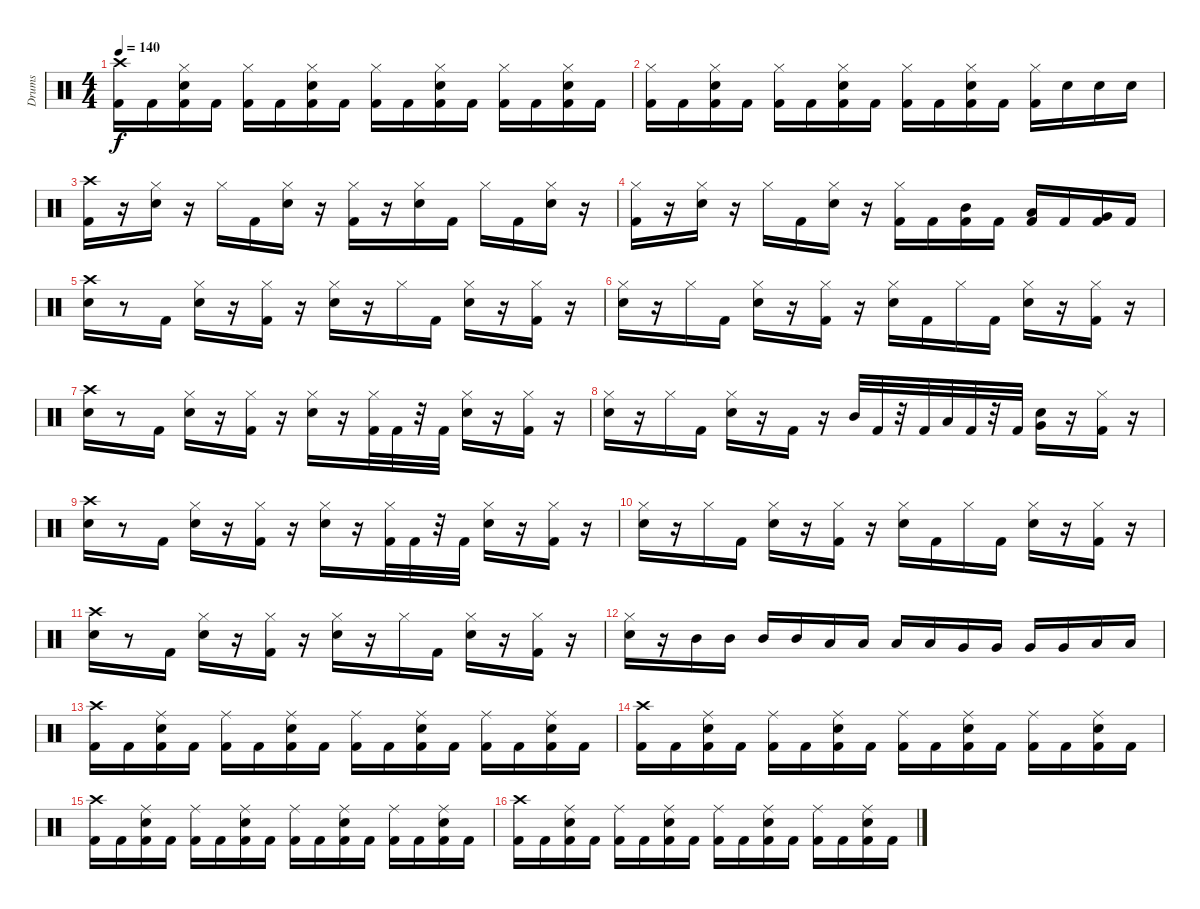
\track ("Drums" "Drums") {instrument percussion}
\staff {score}
\articulation defaults
\ts (4 4)
\tempo 140
\clef neutral
\ks c
("Kick (hit) 2" "Crash high (hit)").16{dy f} "Kick (hit) 2".16 ("Kick (hit) 2" "Snare (hit) 2" "Hi-Hat (closed)").16 "Kick (hit) 2".16 ("Kick (hit) 2" "Hi-Hat (closed)").16 "Kick (hit) 2".16 ("Kick (hit) 2" "Snare (hit) 2" "Hi-Hat (closed)").16 "Kick (hit) 2".16 ("Kick (hit) 2" "Hi-Hat (closed)").16 "Kick (hit) 2".16 ("Kick (hit) 2" "Snare (hit) 2" "Hi-Hat (closed)").16 "Kick (hit) 2".16 ("Kick (hit) 2" "Hi-Hat (closed)").16 "Kick (hit) 2".16 ("Kick (hit) 2" "Snare (hit) 2" "Hi-Hat (closed)").16 "Kick (hit) 2".16 |
("Kick (hit) 2" "Hi-Hat (closed)").16 "Kick (hit) 2".16 ("Kick (hit) 2" "Snare (hit) 2" "Hi-Hat (closed)").16 "Kick (hit) 2".16 ("Kick (hit) 2" "Hi-Hat (closed)").16 "Kick (hit) 2".16 ("Kick (hit) 2" "Snare (hit) 2" "Hi-Hat (closed)").16 "Kick (hit) 2".16 ("Kick (hit) 2" "Hi-Hat (closed)").16 "Kick (hit) 2".16 ("Kick (hit) 2" "Snare (hit) 2" "Hi-Hat (closed)").16 "Kick (hit) 2".16 ("Kick (hit) 2" "Hi-Hat (closed)").16 "Snare (hit) 2".16 "Snare (hit) 2".16 "Snare (hit) 2".16 |
("Kick (hit) 2" "Crash high (hit)").16 r.16 ("Snare (hit) 2" "Hi-Hat (closed)").16 r.16 "Hi-Hat (closed)".16 "Kick (hit) 2".16 ("Snare (hit) 2" "Hi-Hat (closed)").16 r.16 ("Kick (hit) 2" "Hi-Hat (closed)").16 r.16 ("Snare (hit) 2" "Hi-Hat (closed)").16 "Kick (hit) 2".16 "Hi-Hat (closed)".16 "Kick (hit) 2".16 ("Snare (hit) 2" "Hi-Hat (closed)").16 r.16 |
("Kick (hit) 2" "Hi-Hat (closed)").16 r.16 ("Snare (hit) 2" "Hi-Hat (closed)").16 r.16 "Hi-Hat (closed)".16 "Kick (hit) 2".16 ("Snare (hit) 2" "Hi-Hat (closed)").16 r.16 ("Kick (hit) 2" "Hi-Hat (closed)").16 "Kick (hit) 2".16 ("Kick (hit) 2" "Mid Tom (hit)").16 "Kick (hit) 2".16 ("Kick (hit) 2" "Low Tom (hit)").16 "Kick (hit) 2".16 ("Kick (hit) 2" "Very Low Tom (hit)").16 "Kick (hit) 2".16 |
("Snare (hit) 2" "Crash high (hit)").16 r.8 "Kick (hit) 2".16 ("Snare (hit) 2" "Hi-Hat (closed)").16 r.16 ("Kick (hit) 2" "Hi-Hat (closed)").16 r.16 ("Snare (hit) 2" "Hi-Hat (closed)").16 r.16 "Hi-Hat (closed)".16 "Kick (hit) 2".16 ("Snare (hit) 2" "Hi-Hat (closed)").16 r.16 ("Kick (hit) 2" "Hi-Hat (closed)").16 r.16 |
("Snare (hit) 2" "Hi-Hat (closed)").16 r.16 "Hi-Hat (closed)".16 "Kick (hit) 2".16 ("Snare (hit) 2" "Hi-Hat (closed)").16 r.16 ("Kick (hit) 2" "Hi-Hat (closed)").16 r.16 ("Snare (hit) 2" "Hi-Hat (closed)").16 "Kick (hit) 2".16 "Hi-Hat (closed)".16 "Kick (hit) 2".16 ("Snare (hit) 2" "Hi-Hat (closed)").16 r.16 ("Kick (hit) 2" "Hi-Hat (closed)").16 r.16 |
("Snare (hit) 2" "Crash high (hit)").16 r.8 "Kick (hit) 2".16 ("Snare (hit) 2" "Hi-Hat (closed)").16 r.16 ("Kick (hit) 2" "Hi-Hat (closed)").16 r.16 ("Snare (hit) 2" "Hi-Hat (closed)").16 r.16 ("Kick (hit) 2" "Hi-Hat (closed)").32 "Kick (hit) 2".32 r.32 "Kick (hit) 2".32 ("Snare (hit) 2" "Hi-Hat (closed)").16 r.16 ("Kick (hit) 2" "Hi-Hat (closed)").16 r.16 |
("Snare (hit) 2" "Hi-Hat (closed)").16 r.16 "Hi-Hat (closed)".16 "Kick (hit) 2".16 ("Snare (hit) 2" "Hi-Hat (closed)").16 r.16 "Kick (hit) 2".16 r.16 "Mid Tom (hit)".32 "Kick (hit) 2".32 r.32 "Kick (hit) 2".32 "Low Tom (hit)".32 "Kick (hit) 2".32 r.32 "Kick (hit) 2".32 ("Snare (hit) 2" "Very Low Tom (hit)").16 r.16 ("Kick (hit) 2" "Hi-Hat (closed)").16 r.16 |
("Snare (hit) 2" "Crash high (hit)").16 r.8 "Kick (hit) 2".16 ("Snare (hit) 2" "Hi-Hat (closed)").16 r.16 ("Kick (hit) 2" "Hi-Hat (closed)").16 r.16 ("Snare (hit) 2" "Hi-Hat (closed)").16 r.16 ("Kick (hit) 2" "Hi-Hat (closed)").32 "Kick (hit) 2".32 r.32 "Kick (hit) 2".32 ("Snare (hit) 2" "Hi-Hat (closed)").16 r.16 ("Kick (hit) 2" "Hi-Hat (closed)").16 r.16 |
("Snare (hit) 2" "Hi-Hat (closed)").16 r.16 "Hi-Hat (closed)".16 "Kick (hit) 2".16 ("Snare (hit) 2" "Hi-Hat (closed)").16 r.16 ("Kick (hit) 2" "Hi-Hat (closed)").16 r.16 ("Snare (hit) 2" "Hi-Hat (closed)").16 "Kick (hit) 2".16 "Hi-Hat (closed)".16 "Kick (hit) 2".16 ("Snare (hit) 2" "Hi-Hat (closed)").16 r.16 ("Kick (hit) 2" "Hi-Hat (closed)").16 r.16 |
("Snare (hit) 2" "Crash high (hit)").16 r.8 "Kick (hit) 2".16 ("Snare (hit) 2" "Hi-Hat (closed)").16 r.16 ("Kick (hit) 2" "Hi-Hat (closed)").16 r.16 ("Snare (hit) 2" "Hi-Hat (closed)").16 r.16 "Hi-Hat (closed)".16 "Kick (hit) 2".16 ("Snare (hit) 2" "Hi-Hat (closed)").16 r.16 ("Kick (hit) 2" "Hi-Hat (closed)").16 r.16 |
("Snare (hit) 2" "Hi-Hat (closed)").16 r.16 "Mid Tom (hit)".16 "Mid Tom (hit)".16 "Mid Tom (hit)".16 "Mid Tom (hit)".16 "Low Tom (hit)".16 "Low Tom (hit)".16 "Low Tom (hit)".16 "Low Tom (hit)".16 "Very Low Tom (hit)".16 "Very Low Tom (hit)".16 "Very Low Tom (hit)".16 "Very Low Tom (hit)".16 "Low Floor Tom (hit)".16 "Low Floor Tom (hit)".16 |
("Kick (hit) 2" "Crash high (hit)").16 "Kick (hit) 2".16 ("Kick (hit) 2" "Snare (hit) 2" "Ride (middle)").16 "Kick (hit) 2".16 ("Kick (hit) 2" "Ride (middle)").16 "Kick (hit) 2".16 ("Kick (hit) 2" "Snare (hit) 2" "Ride (middle)").16 "Kick (hit) 2".16 ("Kick (hit) 2" "Ride (middle)").16 "Kick (hit) 2".16 ("Kick (hit) 2" "Snare (hit) 2" "Ride (middle)").16 "Kick (hit) 2".16 ("Kick (hit) 2" "Ride (middle)").16 "Kick (hit) 2".16 ("Kick (hit) 2" "Snare (hit) 2" "Ride (middle)").16 "Kick (hit) 2".16 |
("Kick (hit) 2" "Crash high (hit)").16 "Kick (hit) 2".16 ("Kick (hit) 2" "Snare (hit) 2" "Ride (middle)").16 "Kick (hit) 2".16 ("Kick (hit) 2" "Ride (middle)").16 "Kick (hit) 2".16 ("Kick (hit) 2" "Snare (hit) 2" "Ride (middle)").16 "Kick (hit) 2".16 ("Kick (hit) 2" "Ride (middle)").16 "Kick (hit) 2".16 ("Kick (hit) 2" "Snare (hit) 2" "Ride (middle)").16 "Kick (hit) 2".16 ("Kick (hit) 2" "Ride (middle)").16 "Kick (hit) 2".16 ("Kick (hit) 2" "Snare (hit) 2" "Ride (middle)").16 "Kick (hit) 2".16 |
("Kick (hit) 2" "Crash high (hit)").16 "Kick (hit) 2".16 ("Kick (hit) 2" "Snare (hit) 2" "Ride (middle)").16 "Kick (hit) 2".16 ("Kick (hit) 2" "Ride (middle)").16 "Kick (hit) 2".16 ("Kick (hit) 2" "Snare (hit) 2" "Ride (middle)").16 "Kick (hit) 2".16 ("Kick (hit) 2" "Ride (middle)").16 "Kick (hit) 2".16 ("Kick (hit) 2" "Snare (hit) 2" "Ride (middle)").16 "Kick (hit) 2".16 ("Kick (hit) 2" "Ride (middle)").16 "Kick (hit) 2".16 ("Kick (hit) 2" "Snare (hit) 2" "Ride (middle)").16 "Kick (hit) 2".16 |
("Kick (hit) 2" "Crash high (hit)").16 "Kick (hit) 2".16 ("Kick (hit) 2" "Snare (hit) 2" "Ride (middle)").16 "Kick (hit) 2".16 ("Kick (hit) 2" "Ride (middle)").16 "Kick (hit) 2".16 ("Kick (hit) 2" "Snare (hit) 2" "Ride (middle)").16 "Kick (hit) 2".16 ("Kick (hit) 2" "Ride (middle)").16 "Kick (hit) 2".16 ("Kick (hit) 2" "Snare (hit) 2" "Ride (middle)").16 "Kick (hit) 2".16 ("Kick (hit) 2" "Ride (middle)").16 "Kick (hit) 2".16 ("Kick (hit) 2" "Snare (hit) 2" "Ride (middle)").16 "Kick (hit) 2".16
